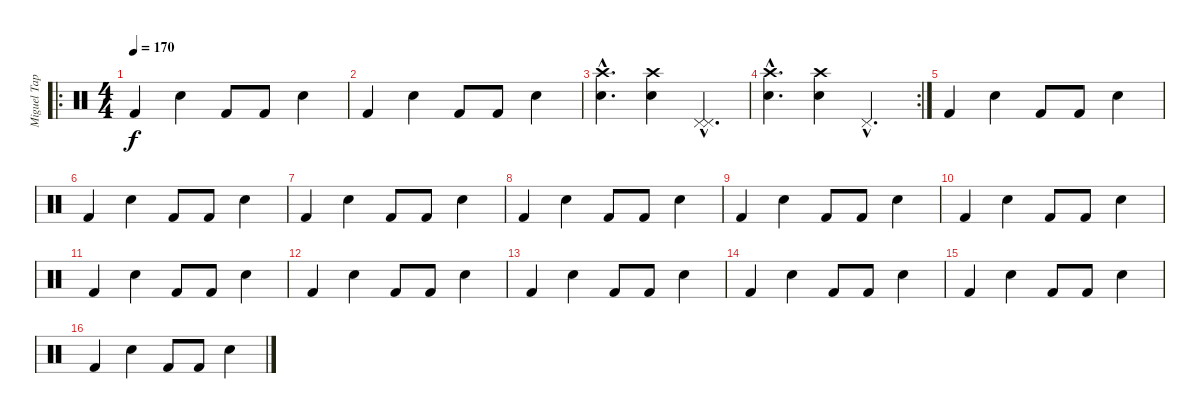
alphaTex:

\track ("Miguel Tapia" "Miguel Tap") {instrument percussion}
\staff {score}
\articulation defaults
\ro
\ts (4 4)
\tempo 170
\clef neutral
\ks c "Kick (hit) 2".4{dy f} "Snare (hit) 2".4 "Kick (hit) 2".8 "Kick (hit) 2".8 "Snare (hit) 2".4
|
"Kick (hit) 2".4 "Snare (hit) 2".4 "Kick (hit) 2".8 "Kick (hit) 2".8 "Snare (hit) 2".4 |
("Snare (hit) 2"{hac} "Crash high (hit)"{hac}).4{d} ("Snare (hit) 2" "Crash high (hit)").4 ("Pedal Hi-Hat (hit)"{hac} "Pedal Hi-Hat (hit)"{hac}).4{d} |
\rc 2
("Snare (hit) 2"{hac} "Crash high (hit)"{hac}).4{d} ("Snare (hit) 2" "Crash high (hit)").4 "Pedal Hi-Hat (hit)"{hac}.4{d} |
"Kick (hit) 2".4 "Snare (hit) 2".4 "Kick (hit) 2".8 "Kick (hit) 2".8 "Snare (hit) 2".4 |
"Kick (hit) 2".4 "Snare (hit) 2".4 "Kick (hit) 2".8 "Kick (hit) 2".8 "Snare (hit) 2".4 |
"Kick (hit) 2".4 "Snare (hit) 2".4 "Kick (hit) 2".8 "Kick (hit) 2".8 "Snare (hit) 2".4 |
"Kick (hit) 2".4 "Snare (hit) 2".4 "Kick (hit) 2".8 "Kick (hit) 2".8 "Snare (hit) 2".4 |
"Kick (hit) 2".4 "Snare (hit) 2".4 "Kick (hit) 2".8 "Kick (hit) 2".8 "Snare (hit) 2".4 |
"Kick (hit) 2".4 "Snare (hit) 2".4 "Kick (hit) 2".8 "Kick (hit) 2".8 "Snare (hit) 2".4 |
"Kick (hit) 2".4 "Snare (hit) 2".4 "Kick (hit) 2".8 "Kick (hit) 2".8 "Snare (hit) 2".4 |
"Kick (hit) 2".4 "Snare (hit) 2".4 "Kick (hit) 2".8 "Kick (hit) 2".8 "Snare (hit) 2".4 |
"Kick (hit) 2".4 "Snare (hit) 2".4 "Kick (hit) 2".8 "Kick (hit) 2".8 "Snare (hit) 2".4 |
"Kick (hit) 2".4 "Snare (hit) 2".4 "Kick (hit) 2".8 "Kick (hit) 2".8 "Snare (hit) 2".4 |
"Kick (hit) 2".4 "Snare (hit) 2".4 "Kick (hit) 2".8 "Kick (hit) 2".8 "Snare (hit) 2".4 |
"Kick (hit) 2".4 "Snare (hit) 2".4 "Kick (hit) 2".8 "Kick (hit) 2".8 "Snare (hit) 2".4
